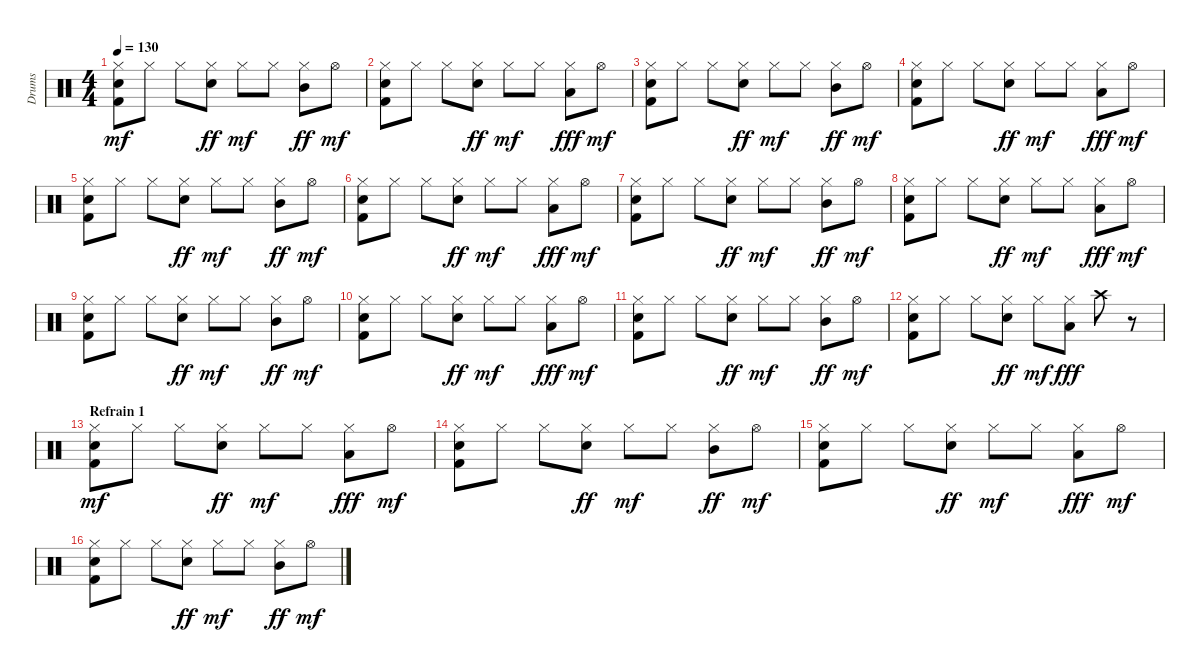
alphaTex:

\track ("Drums" "Drums") {instrument percussion}
\staff {score}
\articulation defaults
\ts (4 4)
\tempo 130
\clef neutral
\ks c
("Hi-Hat (closed)" "Electric Snare (hit)" "Kick (hit) 2").8{dy mf} "Hi-Hat (closed)".8 "Hi-Hat (closed)".8 ("Hi-Hat (closed)" "Electric Snare (hit)").8{dy ff} "Hi-Hat (closed)".8{dy mf} "Hi-Hat (closed)".8 ("Hi-Hat (closed)" "Mid Tom (hit)").8{dy ff} "Hi-Hat (open)".8{dy mf} |
("Hi-Hat (closed)" "Snare (hit) 2" "Kick (hit) 2").8 "Hi-Hat (closed)".8 "Hi-Hat (closed)".8 ("Hi-Hat (closed)" "Electric Snare (hit)").8{dy ff} "Hi-Hat (closed)".8{dy mf} "Hi-Hat (closed)".8 ("Hi-Hat (closed)" "Low Tom (hit)").8{dy fff} "Hi-Hat (open)".8{dy mf} |
("Hi-Hat (closed)" "Electric Snare (hit)" "Kick (hit) 2").8 "Hi-Hat (closed)".8 "Hi-Hat (closed)".8 ("Hi-Hat (closed)" "Electric Snare (hit)").8{dy ff} "Hi-Hat (closed)".8{dy mf} "Hi-Hat (closed)".8 ("Hi-Hat (closed)" "Mid Tom (hit)").8{dy ff} "Hi-Hat (open)".8{dy mf} |
("Hi-Hat (closed)" "Snare (hit) 2" "Kick (hit) 2").8 "Hi-Hat (closed)".8 "Hi-Hat (closed)".8 ("Hi-Hat (closed)" "Electric Snare (hit)").8{dy ff} "Hi-Hat (closed)".8{dy mf} "Hi-Hat (closed)".8 ("Hi-Hat (closed)" "Low Tom (hit)").8{dy fff} "Hi-Hat (open)".8{dy mf} |
("Hi-Hat (closed)" "Electric Snare (hit)" "Kick (hit) 2").8 "Hi-Hat (closed)".8 "Hi-Hat (closed)".8 ("Hi-Hat (closed)" "Electric Snare (hit)").8{dy ff} "Hi-Hat (closed)".8{dy mf} "Hi-Hat (closed)".8 ("Hi-Hat (closed)" "Mid Tom (hit)").8{dy ff} "Hi-Hat (open)".8{dy mf} |
("Hi-Hat (closed)" "Snare (hit) 2" "Kick (hit) 2").8 "Hi-Hat (closed)".8 "Hi-Hat (closed)".8 ("Hi-Hat (closed)" "Electric Snare (hit)").8{dy ff} "Hi-Hat (closed)".8{dy mf} "Hi-Hat (closed)".8 ("Hi-Hat (closed)" "Low Tom (hit)").8{dy fff} "Hi-Hat (open)".8{dy mf} |
("Hi-Hat (closed)" "Electric Snare (hit)" "Kick (hit) 2").8 "Hi-Hat (closed)".8 "Hi-Hat (closed)".8 ("Hi-Hat (closed)" "Electric Snare (hit)").8{dy ff} "Hi-Hat (closed)".8{dy mf} "Hi-Hat (closed)".8 ("Hi-Hat (closed)" "Mid Tom (hit)").8{dy ff} "Hi-Hat (open)".8{dy mf} |
("Hi-Hat (closed)" "Snare (hit) 2" "Kick (hit) 2").8 "Hi-Hat (closed)".8 "Hi-Hat (closed)".8 ("Hi-Hat (closed)" "Electric Snare (hit)").8{dy ff} "Hi-Hat (closed)".8{dy mf} "Hi-Hat (closed)".8 ("Hi-Hat (closed)" "Low Tom (hit)").8{dy fff} "Hi-Hat (open)".8{dy mf} |
("Hi-Hat (closed)" "Electric Snare (hit)" "Kick (hit) 2").8 "Hi-Hat (closed)".8 "Hi-Hat (closed)".8 ("Hi-Hat (closed)" "Electric Snare (hit)").8{dy ff} "Hi-Hat (closed)".8{dy mf} "Hi-Hat (closed)".8 ("Hi-Hat (closed)" "Mid Tom (hit)").8{dy ff} "Hi-Hat (open)".8{dy mf} |
("Hi-Hat (closed)" "Snare (hit) 2" "Kick (hit) 2").8 "Hi-Hat (closed)".8 "Hi-Hat (closed)".8 ("Hi-Hat (closed)" "Electric Snare (hit)").8{dy ff} "Hi-Hat (closed)".8{dy mf} "Hi-Hat (closed)".8 ("Hi-Hat (closed)" "Low Tom (hit)").8{dy fff} "Hi-Hat (open)".8{dy mf} |
("Hi-Hat (closed)" "Electric Snare (hit)" "Kick (hit) 2").8 "Hi-Hat (closed)".8 "Hi-Hat (closed)".8 ("Hi-Hat (closed)" "Electric Snare (hit)").8{dy ff} "Hi-Hat (closed)".8{dy mf} "Hi-Hat (closed)".8 ("Hi-Hat (closed)" "Mid Tom (hit)").8{dy ff} "Hi-Hat (open)".8{dy mf} |
("Hi-Hat (closed)" "Snare (hit) 2" "Kick (hit) 2").8 "Hi-Hat (closed)".8 "Hi-Hat (closed)".8 ("Hi-Hat (closed)" "Electric Snare (hit)").8{dy ff} "Hi-Hat (closed)".8{dy mf} ("Hi-Hat (closed)" "Low Tom (hit)").8{dy fff} "Crash high (hit)".8 r.8 |
\section ("" "Refrain 1")
("Hi-Hat (closed)" "Snare (hit) 2" "Kick (hit) 2").8{dy mf} "Hi-Hat (closed)".8 "Hi-Hat (closed)".8 ("Hi-Hat (closed)" "Electric Snare (hit)").8{dy ff} "Hi-Hat (closed)".8{dy mf} "Hi-Hat (closed)".8 ("Hi-Hat (closed)" "Low Tom (hit)").8{dy fff} "Hi-Hat (open)".8{dy mf} |
("Hi-Hat (closed)" "Electric Snare (hit)" "Kick (hit) 2").8 "Hi-Hat (closed)".8 "Hi-Hat (closed)".8 ("Hi-Hat (closed)" "Electric Snare (hit)").8{dy ff} "Hi-Hat (closed)".8{dy mf} "Hi-Hat (closed)".8 ("Hi-Hat (closed)" "Mid Tom (hit)").8{dy ff} "Hi-Hat (open)".8{dy mf} |
("Hi-Hat (closed)" "Snare (hit) 2" "Kick (hit) 2").8 "Hi-Hat (closed)".8 "Hi-Hat (closed)".8 ("Hi-Hat (closed)" "Electric Snare (hit)").8{dy ff} "Hi-Hat (closed)".8{dy mf} "Hi-Hat (closed)".8 ("Hi-Hat (closed)" "Low Tom (hit)").8{dy fff} "Hi-Hat (open)".8{dy mf} |
("Hi-Hat (closed)" "Electric Snare (hit)" "Kick (hit) 2").8 "Hi-Hat (closed)".8 "Hi-Hat (closed)".8 ("Hi-Hat (closed)" "Electric Snare (hit)").8{dy ff} "Hi-Hat (closed)".8{dy mf} "Hi-Hat (closed)".8 ("Hi-Hat (closed)" "Mid Tom (hit)").8{dy ff} "Hi-Hat (open)".8{dy mf}
